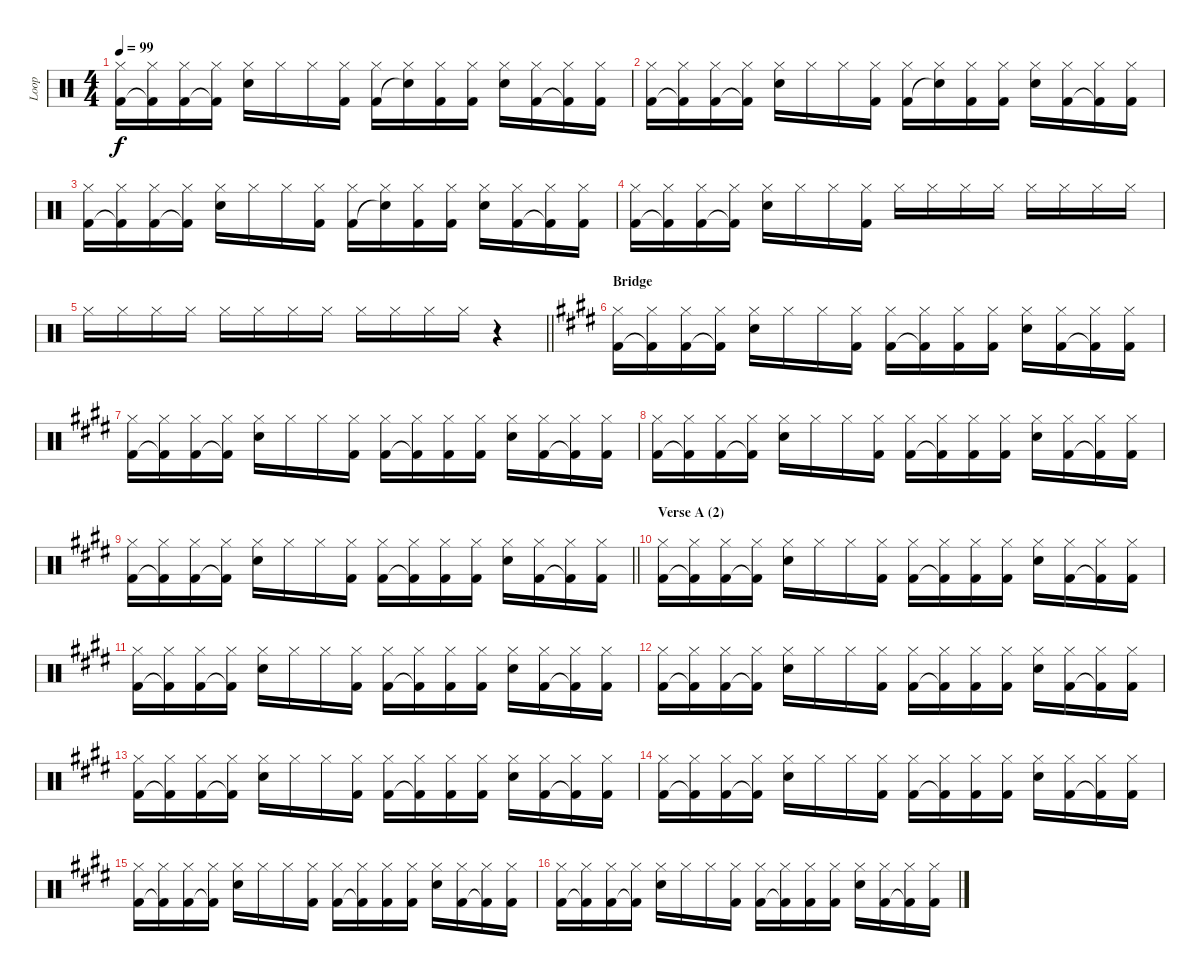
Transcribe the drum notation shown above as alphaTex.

\track ("Loop" "Loop") {instrument percussion}
\staff {score}
\articulation defaults
\ts (4 4)
\tempo 99
\clef neutral
\ks c
("Hi-Hat (closed)" "Kick (hit) 2").16{dy f} ("Hi-Hat (closed)" "Kick (hit) 2"{t}).16 ("Hi-Hat (closed)" "Kick (hit) 2").16 ("Hi-Hat (closed)" "Kick (hit) 2"{t}).16 ("Hi-Hat (closed)" "Electric Snare (hit)").16 "Hi-Hat (closed)".16 "Hi-Hat (closed)".16 ("Hi-Hat (closed)" "Kick (hit) 2").16 ("Hi-Hat (closed)" "Kick (hit) 2").16 ("Hi-Hat (closed)" "Snare (hit)"{t}).16 ("Hi-Hat (closed)" "Kick (hit) 2").16 ("Hi-Hat (closed)" "Kick (hit) 2").16 ("Hi-Hat (closed)" "Electric Snare (hit)").16 ("Hi-Hat (closed)" "Kick (hit) 2").16 ("Hi-Hat (closed)" "Kick (hit) 2"{t}).16 ("Hi-Hat (closed)" "Kick (hit) 2").16 |
("Hi-Hat (closed)" "Kick (hit) 2").16 ("Hi-Hat (closed)" "Kick (hit) 2"{t}).16 ("Hi-Hat (closed)" "Kick (hit) 2").16 ("Hi-Hat (closed)" "Kick (hit) 2"{t}).16 ("Hi-Hat (closed)" "Electric Snare (hit)").16 "Hi-Hat (closed)".16 "Hi-Hat (closed)".16 ("Hi-Hat (closed)" "Kick (hit) 2").16 ("Hi-Hat (closed)" "Kick (hit) 2").16 ("Hi-Hat (closed)" "Snare (hit)"{t}).16 ("Hi-Hat (closed)" "Kick (hit) 2").16 ("Hi-Hat (closed)" "Kick (hit) 2").16 ("Hi-Hat (closed)" "Electric Snare (hit)").16 ("Hi-Hat (closed)" "Kick (hit) 2").16 ("Hi-Hat (closed)" "Kick (hit) 2"{t}).16 ("Hi-Hat (closed)" "Kick (hit) 2").16 |
("Hi-Hat (closed)" "Kick (hit) 2").16 ("Hi-Hat (closed)" "Kick (hit) 2"{t}).16 ("Hi-Hat (closed)" "Kick (hit) 2").16 ("Hi-Hat (closed)" "Kick (hit) 2"{t}).16 ("Hi-Hat (closed)" "Electric Snare (hit)").16 "Hi-Hat (closed)".16 "Hi-Hat (closed)".16 ("Hi-Hat (closed)" "Kick (hit) 2").16 ("Hi-Hat (closed)" "Kick (hit) 2").16 ("Hi-Hat (closed)" "Snare (hit)"{t}).16 ("Hi-Hat (closed)" "Kick (hit) 2").16 ("Hi-Hat (closed)" "Kick (hit) 2").16 ("Hi-Hat (closed)" "Electric Snare (hit)").16 ("Hi-Hat (closed)" "Kick (hit) 2").16 ("Hi-Hat (closed)" "Kick (hit) 2"{t}).16 ("Hi-Hat (closed)" "Kick (hit) 2").16 |
("Hi-Hat (closed)" "Kick (hit) 2").16 ("Hi-Hat (closed)" "Kick (hit) 2"{t}).16 ("Hi-Hat (closed)" "Kick (hit) 2").16 ("Hi-Hat (closed)" "Kick (hit) 2"{t}).16 ("Hi-Hat (closed)" "Electric Snare (hit)").16 "Hi-Hat (closed)".16 "Hi-Hat (closed)".16 ("Hi-Hat (closed)" "Kick (hit) 2").16 "Hi-Hat (closed)".16 "Hi-Hat (closed)".16 "Hi-Hat (closed)".16 "Hi-Hat (closed)".16 "Hi-Hat (closed)".16 "Hi-Hat (closed)".16 "Hi-Hat (closed)".16 "Hi-Hat (closed)".16 |
\barLineRight lightlight "Hi-Hat (closed)".16 "Hi-Hat (closed)".16 "Hi-Hat (closed)".16 "Hi-Hat (closed)".16 "Hi-Hat (closed)".16 "Hi-Hat (closed)".16 "Hi-Hat (closed)".16 "Hi-Hat (closed)".16 "Hi-Hat (closed)".16 "Hi-Hat (closed)".16 "Hi-Hat (closed)".16 "Hi-Hat (closed)".16
r.4 |
\section ("" "Bridge")
\ks c#minor
("Hi-Hat (closed)" "Kick (hit) 2").16 ("Hi-Hat (closed)" "Kick (hit) 2"{t}).16 ("Hi-Hat (closed)" "Kick (hit) 2").16 ("Hi-Hat (closed)" "Kick (hit) 2"{t}).16 ("Hi-Hat (closed)" "Electric Snare (hit)").16 "Hi-Hat (closed)".16 "Hi-Hat (closed)".16 ("Hi-Hat (closed)" "Kick (hit) 2").16 ("Hi-Hat (closed)" "Kick (hit) 2").16 ("Hi-Hat (closed)" "Kick (hit) 2"{t}).16 ("Hi-Hat (closed)" "Kick (hit) 2").16 ("Hi-Hat (closed)" "Kick (hit) 2").16 ("Hi-Hat (closed)" "Electric Snare (hit)").16 ("Hi-Hat (closed)" "Kick (hit) 2").16 ("Hi-Hat (closed)" "Kick (hit) 2"{t}).16 ("Hi-Hat (closed)" "Kick (hit) 2").16 |
("Hi-Hat (closed)" "Kick (hit) 2").16 ("Hi-Hat (closed)" "Kick (hit) 2"{t}).16 ("Hi-Hat (closed)" "Kick (hit) 2").16 ("Hi-Hat (closed)" "Kick (hit) 2"{t}).16 ("Hi-Hat (closed)" "Electric Snare (hit)").16 "Hi-Hat (closed)".16 "Hi-Hat (closed)".16 ("Hi-Hat (closed)" "Kick (hit) 2").16 ("Hi-Hat (closed)" "Kick (hit) 2").16 ("Hi-Hat (closed)" "Kick (hit) 2"{t}).16 ("Hi-Hat (closed)" "Kick (hit) 2").16 ("Hi-Hat (closed)" "Kick (hit) 2").16 ("Hi-Hat (closed)" "Electric Snare (hit)").16 ("Hi-Hat (closed)" "Kick (hit) 2").16 ("Hi-Hat (closed)" "Kick (hit) 2"{t}).16 ("Hi-Hat (closed)" "Kick (hit) 2").16 |
("Hi-Hat (closed)" "Kick (hit) 2").16 ("Hi-Hat (closed)" "Kick (hit) 2"{t}).16 ("Hi-Hat (closed)" "Kick (hit) 2").16 ("Hi-Hat (closed)" "Kick (hit) 2"{t}).16 ("Hi-Hat (closed)" "Electric Snare (hit)").16 "Hi-Hat (closed)".16 "Hi-Hat (closed)".16 ("Hi-Hat (closed)" "Kick (hit) 2").16 ("Hi-Hat (closed)" "Kick (hit) 2").16 ("Hi-Hat (closed)" "Kick (hit) 2"{t}).16 ("Hi-Hat (closed)" "Kick (hit) 2").16 ("Hi-Hat (closed)" "Kick (hit) 2").16 ("Hi-Hat (closed)" "Electric Snare (hit)").16 ("Hi-Hat (closed)" "Kick (hit) 2").16 ("Hi-Hat (closed)" "Kick (hit) 2"{t}).16 ("Hi-Hat (closed)" "Kick (hit) 2").16 |
\barLineRight lightlight
("Hi-Hat (closed)" "Kick (hit) 2").16 ("Hi-Hat (closed)" "Kick (hit) 2"{t}).16 ("Hi-Hat (closed)" "Kick (hit) 2").16 ("Hi-Hat (closed)" "Kick (hit) 2"{t}).16 ("Hi-Hat (closed)" "Electric Snare (hit)").16 "Hi-Hat (closed)".16 "Hi-Hat (closed)".16 ("Hi-Hat (closed)" "Kick (hit) 2").16 ("Hi-Hat (closed)" "Kick (hit) 2").16 ("Hi-Hat (closed)" "Kick (hit) 2"{t}).16 ("Hi-Hat (closed)" "Kick (hit) 2").16 ("Hi-Hat (closed)" "Kick (hit) 2").16 ("Hi-Hat (closed)" "Electric Snare (hit)").16 ("Hi-Hat (closed)" "Kick (hit) 2").16 ("Hi-Hat (closed)" "Kick (hit) 2"{t}).16 ("Hi-Hat (closed)" "Kick (hit) 2").16 |
\section ("" "Verse A (2)")
("Hi-Hat (closed)" "Kick (hit) 2").16 ("Hi-Hat (closed)" "Kick (hit) 2"{t}).16 ("Hi-Hat (closed)" "Kick (hit) 2").16 ("Hi-Hat (closed)" "Kick (hit) 2"{t}).16 ("Hi-Hat (closed)" "Electric Snare (hit)").16 "Hi-Hat (closed)".16 "Hi-Hat (closed)".16 ("Hi-Hat (closed)" "Kick (hit) 2").16 ("Hi-Hat (closed)" "Kick (hit) 2").16 ("Hi-Hat (closed)" "Kick (hit) 2"{t}).16 ("Hi-Hat (closed)" "Kick (hit) 2").16 ("Hi-Hat (closed)" "Kick (hit) 2").16 ("Hi-Hat (closed)" "Electric Snare (hit)").16 ("Hi-Hat (closed)" "Kick (hit) 2").16 ("Hi-Hat (closed)" "Kick (hit) 2"{t}).16 ("Hi-Hat (closed)" "Kick (hit) 2").16 |
("Hi-Hat (closed)" "Kick (hit) 2").16 ("Hi-Hat (closed)" "Kick (hit) 2"{t}).16 ("Hi-Hat (closed)" "Kick (hit) 2").16 ("Hi-Hat (closed)" "Kick (hit) 2"{t}).16 ("Hi-Hat (closed)" "Electric Snare (hit)").16 "Hi-Hat (closed)".16 "Hi-Hat (closed)".16 ("Hi-Hat (closed)" "Kick (hit) 2").16 ("Hi-Hat (closed)" "Kick (hit) 2").16 ("Hi-Hat (closed)" "Kick (hit) 2"{t}).16 ("Hi-Hat (closed)" "Kick (hit) 2").16 ("Hi-Hat (closed)" "Kick (hit) 2").16 ("Hi-Hat (closed)" "Electric Snare (hit)").16 ("Hi-Hat (closed)" "Kick (hit) 2").16 ("Hi-Hat (closed)" "Kick (hit) 2"{t}).16 ("Hi-Hat (closed)" "Kick (hit) 2").16 |
("Hi-Hat (closed)" "Kick (hit) 2").16 ("Hi-Hat (closed)" "Kick (hit) 2"{t}).16 ("Hi-Hat (closed)" "Kick (hit) 2").16 ("Hi-Hat (closed)" "Kick (hit) 2"{t}).16 ("Hi-Hat (closed)" "Electric Snare (hit)").16 "Hi-Hat (closed)".16 "Hi-Hat (closed)".16 ("Hi-Hat (closed)" "Kick (hit) 2").16 ("Hi-Hat (closed)" "Kick (hit) 2").16 ("Hi-Hat (closed)" "Kick (hit) 2"{t}).16 ("Hi-Hat (closed)" "Kick (hit) 2").16 ("Hi-Hat (closed)" "Kick (hit) 2").16 ("Hi-Hat (closed)" "Electric Snare (hit)").16 ("Hi-Hat (closed)" "Kick (hit) 2").16 ("Hi-Hat (closed)" "Kick (hit) 2"{t}).16 ("Hi-Hat (closed)" "Kick (hit) 2").16 |
("Hi-Hat (closed)" "Kick (hit) 2").16 ("Hi-Hat (closed)" "Kick (hit) 2"{t}).16 ("Hi-Hat (closed)" "Kick (hit) 2").16 ("Hi-Hat (closed)" "Kick (hit) 2"{t}).16 ("Hi-Hat (closed)" "Electric Snare (hit)").16 "Hi-Hat (closed)".16 "Hi-Hat (closed)".16 ("Hi-Hat (closed)" "Kick (hit) 2").16 ("Hi-Hat (closed)" "Kick (hit) 2").16 ("Hi-Hat (closed)" "Kick (hit) 2"{t}).16 ("Hi-Hat (closed)" "Kick (hit) 2").16 ("Hi-Hat (closed)" "Kick (hit) 2").16 ("Hi-Hat (closed)" "Electric Snare (hit)").16 ("Hi-Hat (closed)" "Kick (hit) 2").16 ("Hi-Hat (closed)" "Kick (hit) 2"{t}).16 ("Hi-Hat (closed)" "Kick (hit) 2").16 |
("Hi-Hat (closed)" "Kick (hit) 2").16 ("Hi-Hat (closed)" "Kick (hit) 2"{t}).16 ("Hi-Hat (closed)" "Kick (hit) 2").16 ("Hi-Hat (closed)" "Kick (hit) 2"{t}).16 ("Hi-Hat (closed)" "Electric Snare (hit)").16 "Hi-Hat (closed)".16 "Hi-Hat (closed)".16 ("Hi-Hat (closed)" "Kick (hit) 2").16 ("Hi-Hat (closed)" "Kick (hit) 2").16 ("Hi-Hat (closed)" "Kick (hit) 2"{t}).16 ("Hi-Hat (closed)" "Kick (hit) 2").16 ("Hi-Hat (closed)" "Kick (hit) 2").16 ("Hi-Hat (closed)" "Electric Snare (hit)").16 ("Hi-Hat (closed)" "Kick (hit) 2").16 ("Hi-Hat (closed)" "Kick (hit) 2"{t}).16 ("Hi-Hat (closed)" "Kick (hit) 2").16 |
("Hi-Hat (closed)" "Kick (hit) 2").16 ("Hi-Hat (closed)" "Kick (hit) 2"{t}).16 ("Hi-Hat (closed)" "Kick (hit) 2").16 ("Hi-Hat (closed)" "Kick (hit) 2"{t}).16 ("Hi-Hat (closed)" "Electric Snare (hit)").16 "Hi-Hat (closed)".16 "Hi-Hat (closed)".16 ("Hi-Hat (closed)" "Kick (hit) 2").16 ("Hi-Hat (closed)" "Kick (hit) 2").16 ("Hi-Hat (closed)" "Kick (hit) 2"{t}).16 ("Hi-Hat (closed)" "Kick (hit) 2").16 ("Hi-Hat (closed)" "Kick (hit) 2").16 ("Hi-Hat (closed)" "Electric Snare (hit)").16 ("Hi-Hat (closed)" "Kick (hit) 2").16 ("Hi-Hat (closed)" "Kick (hit) 2"{t}).16 ("Hi-Hat (closed)" "Kick (hit) 2").16 |
("Hi-Hat (closed)" "Kick (hit) 2").16 ("Hi-Hat (closed)" "Kick (hit) 2"{t}).16 ("Hi-Hat (closed)" "Kick (hit) 2").16 ("Hi-Hat (closed)" "Kick (hit) 2"{t}).16 ("Hi-Hat (closed)" "Electric Snare (hit)").16 "Hi-Hat (closed)".16 "Hi-Hat (closed)".16 ("Hi-Hat (closed)" "Kick (hit) 2").16 ("Hi-Hat (closed)" "Kick (hit) 2").16 ("Hi-Hat (closed)" "Kick (hit) 2"{t}).16 ("Hi-Hat (closed)" "Kick (hit) 2").16 ("Hi-Hat (closed)" "Kick (hit) 2").16 ("Hi-Hat (closed)" "Electric Snare (hit)").16 ("Hi-Hat (closed)" "Kick (hit) 2").16 ("Hi-Hat (closed)" "Kick (hit) 2"{t}).16 ("Hi-Hat (closed)" "Kick (hit) 2").16
